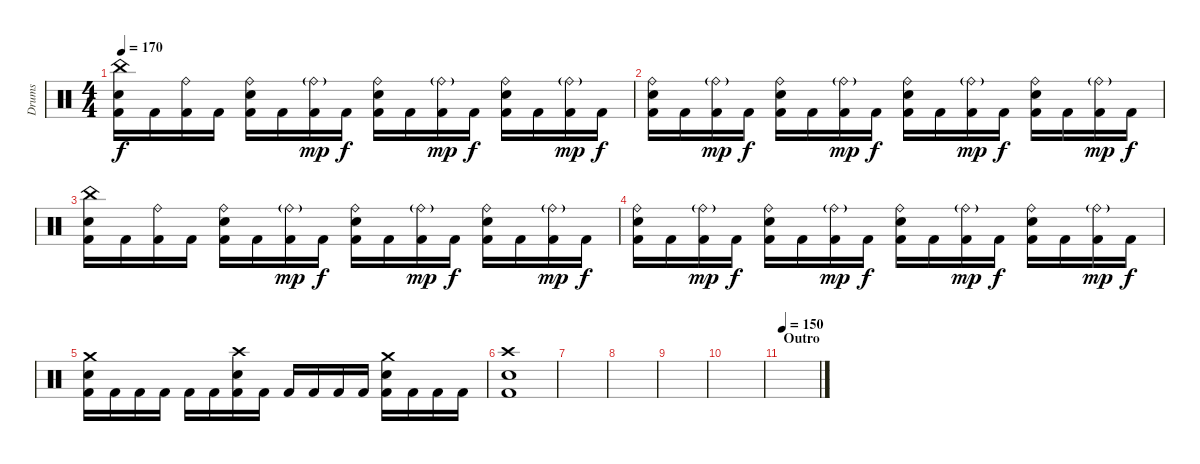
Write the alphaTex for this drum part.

\track ("Drums" "Drums") {instrument percussion}
\staff {score}
\articulation defaults
\ts (4 4)
\tempo 170
\clef neutral
\ks c
("China (hit)" "Electric Snare (hit)" "Kick (hit) 2").16{dy f} "Kick (hit) 2".16 ("Ride (bell)" "Kick (hit) 2").16 "Kick (hit) 2".16 ("Ride (bell)" "Electric Snare (hit)" "Kick (hit) 2").16 "Kick (hit) 2".16 ("Ride (bell)"{g} "Kick (hit) 2").16{dy mp} "Kick (hit) 2".16{dy f} ("Ride (bell)" "Electric Snare (hit)" "Kick (hit) 2").16 "Kick (hit) 2".16 ("Ride (bell)"{g} "Kick (hit) 2").16{dy mp} "Kick (hit) 2".16{dy f} ("Ride (bell)" "Electric Snare (hit)" "Kick (hit) 2").16 "Kick (hit) 2".16 ("Ride (bell)"{g} "Kick (hit) 2").16{dy mp} "Kick (hit) 2".16{dy f} |
("Ride (bell)" "Electric Snare (hit)" "Kick (hit) 2").16 "Kick (hit) 2".16 ("Ride (bell)"{g} "Kick (hit) 2").16{dy mp} "Kick (hit) 2".16{dy f} ("Ride (bell)" "Electric Snare (hit)" "Kick (hit) 2").16 "Kick (hit) 2".16 ("Ride (bell)"{g} "Kick (hit) 2").16{dy mp} "Kick (hit) 2".16{dy f} ("Ride (bell)" "Electric Snare (hit)" "Kick (hit) 2").16 "Kick (hit) 2".16 ("Ride (bell)"{g} "Kick (hit) 2").16{dy mp} "Kick (hit) 2".16{dy f} ("Ride (bell)" "Electric Snare (hit)" "Kick (hit) 2").16 "Kick (hit) 2".16 ("Ride (bell)"{g} "Kick (hit) 2").16{dy mp} "Kick (hit) 2".16{dy f} |
("China (hit)" "Electric Snare (hit)" "Kick (hit) 2").16 "Kick (hit) 2".16 ("Ride (bell)" "Kick (hit) 2").16 "Kick (hit) 2".16 ("Ride (bell)" "Electric Snare (hit)" "Kick (hit) 2").16 "Kick (hit) 2".16 ("Ride (bell)"{g} "Kick (hit) 2").16{dy mp} "Kick (hit) 2".16{dy f} ("Ride (bell)" "Electric Snare (hit)" "Kick (hit) 2").16 "Kick (hit) 2".16 ("Ride (bell)"{g} "Kick (hit) 2").16{dy mp} "Kick (hit) 2".16{dy f} ("Ride (bell)" "Electric Snare (hit)" "Kick (hit) 2").16 "Kick (hit) 2".16 ("Ride (bell)"{g} "Kick (hit) 2").16{dy mp} "Kick (hit) 2".16{dy f} |
("Ride (bell)" "Electric Snare (hit)" "Kick (hit) 2").16 "Kick (hit) 2".16 ("Ride (bell)"{g} "Kick (hit) 2").16{dy mp} "Kick (hit) 2".16{dy f} ("Ride (bell)" "Electric Snare (hit)" "Kick (hit) 2").16 "Kick (hit) 2".16 ("Ride (bell)"{g} "Kick (hit) 2").16{dy mp} "Kick (hit) 2".16{dy f} ("Ride (bell)" "Electric Snare (hit)" "Kick (hit) 2").16 "Kick (hit) 2".16 ("Ride (bell)"{g} "Kick (hit) 2").16{dy mp} "Kick (hit) 2".16{dy f} ("Ride (bell)" "Electric Snare (hit)" "Kick (hit) 2").16 "Kick (hit) 2".16 ("Ride (bell)"{g} "Kick (hit) 2").16{dy mp} "Kick (hit) 2".16{dy f} |
("Crash medium (hit)" "Electric Snare (hit)" "Kick (hit) 2").16 "Kick (hit) 2".16 "Kick (hit) 2".16 "Kick (hit) 2".16 "Kick (hit) 2".16 "Kick (hit) 2".16 ("Crash high (hit)" "Electric Snare (hit)" "Kick (hit) 2").16 "Kick (hit) 2".16 "Kick (hit) 2".16 "Kick (hit) 2".16 "Kick (hit) 2".16 "Kick (hit) 2".16 ("Crash medium (hit)" "Electric Snare (hit)" "Kick (hit) 2").16 "Kick (hit) 2".16 "Kick (hit) 2".16 "Kick (hit) 2".16 |
("Crash high (hit)" "Electric Snare (hit)" "Kick (hit) 2").1 |
|
|
|
|
\section ("" "Outro")
\tempo 150
